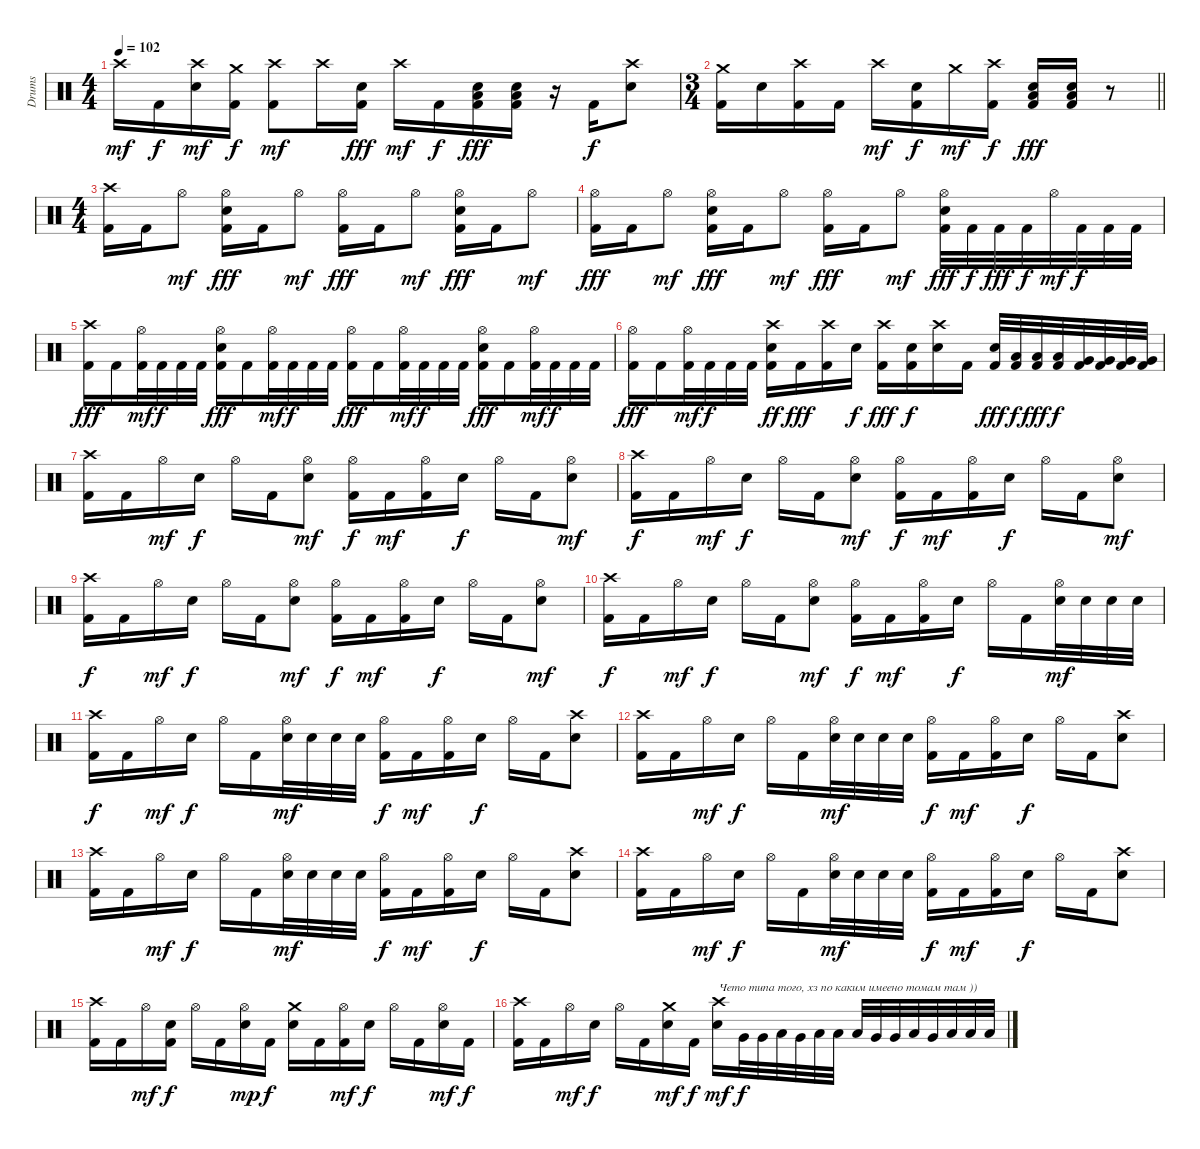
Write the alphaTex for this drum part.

\track ("Drums" "Drums") {instrument percussion}
\staff {score}
\articulation defaults
\ts (4 4)
\tempo 102
\clef neutral
\ks c "Crash high (hit)".16{dy mf} "Kick (hit) 2".16{dy f}
("Crash high (hit)" "Electric Snare (hit)").16{dy mf} ("Crash medium (hit)" "Kick (hit) 2").16{dy f} ("Crash high (hit)" "Kick (hit) 2").8{dy mf} "Crash high (hit)".16 ("Electric Snare (hit)" "Kick (hit) 2").16{dy fff} "Crash high (hit)".16{dy mf} "Kick (hit) 2".16{dy f} ("Low Floor Tom (hit)" "Electric Snare (hit)" "Kick (hit) 2").16{dy fff} ("Low Floor Tom (hit)" "Electric Snare (hit)" "Kick (hit) 2").16 r.16 "Kick (hit) 2".16{dy f} ("Crash high (hit)" "Electric Snare (hit)").8 |
\ts (3 4)
\barLineRight lightlight
("Crash medium (hit)" "Kick (hit) 2").16 "Electric Snare (hit)".16 ("Crash high (hit)" "Kick (hit) 2").16 "Kick (hit) 2".16 "Crash high (hit)".16{dy mf} ("Electric Snare (hit)" "Kick (hit) 2").16{dy f} "Crash medium (hit)".16{dy mf} ("Crash high (hit)" "Kick (hit) 2").16{dy f} ("Low Floor Tom (hit)" "Electric Snare (hit)" "Kick (hit) 2").16{dy fff} ("Low Floor Tom (hit)" "Electric Snare (hit)" "Kick (hit) 2").16 r.8 |
\ts (4 4)
("Crash high (hit)" "Kick (hit) 2").16 "Kick (hit) 2".16 "Hi-Hat (open)".8{dy mf} ("Hi-Hat (open)" "Electric Snare (hit)" "Kick (hit) 2").16{dy fff} "Kick (hit) 2".16 "Hi-Hat (open)".8{dy mf} ("Hi-Hat (open)" "Kick (hit) 2").16{dy fff} "Kick (hit) 2".16 "Hi-Hat (open)".8{dy mf} ("Hi-Hat (open)" "Electric Snare (hit)" "Kick (hit) 2").16{dy fff} "Kick (hit) 2".16 "Hi-Hat (open)".8{dy mf} |
("Hi-Hat (open)" "Kick (hit) 2").16{dy fff} "Kick (hit) 2".16 "Hi-Hat (open)".8{dy mf} ("Hi-Hat (open)" "Electric Snare (hit)" "Kick (hit) 2").16{dy fff} "Kick (hit) 2".16 "Hi-Hat (open)".8{dy mf} ("Hi-Hat (open)" "Kick (hit) 2").16{dy fff} "Kick (hit) 2".16 "Hi-Hat (open)".8{dy mf} ("Hi-Hat (open)" "Electric Snare (hit)" "Kick (hit) 2").32{dy fff} "Kick (hit) 2".32{dy f} "Kick (hit) 2".32{dy fff} "Kick (hit) 2".32{dy f} "Hi-Hat (open)".32{dy mf} "Kick (hit) 2".32{dy f} "Kick (hit) 2".32 "Kick (hit) 2".32 |
("Crash high (hit)" "Kick (hit) 2").16{dy fff} "Kick (hit) 2".16 ("Hi-Hat (open)" "Kick (hit) 2").32{dy mf} "Kick (hit) 2".32{dy f} "Kick (hit) 2".32 "Kick (hit) 2".32 ("Hi-Hat (open)" "Electric Snare (hit)" "Kick (hit) 2").16{dy fff} "Kick (hit) 2".16 ("Hi-Hat (open)" "Kick (hit) 2").32{dy mf} "Kick (hit) 2".32{dy f} "Kick (hit) 2".32 "Kick (hit) 2".32 ("Hi-Hat (open)" "Kick (hit) 2").16{dy fff} "Kick (hit) 2".16 ("Hi-Hat (open)" "Kick (hit) 2").32{dy mf} "Kick (hit) 2".32{dy f} "Kick (hit) 2".32 "Kick (hit) 2".32 ("Hi-Hat (open)" "Electric Snare (hit)" "Kick (hit) 2").16{dy fff} "Kick (hit) 2".16 ("Hi-Hat (open)" "Kick (hit) 2").32{dy mf} "Kick (hit) 2".32{dy f} "Kick (hit) 2".32 "Kick (hit) 2".32 |
("Hi-Hat (open)" "Kick (hit) 2").16{dy fff} "Kick (hit) 2".16 ("Hi-Hat (open)" "Kick (hit) 2").32{dy mf} "Kick (hit) 2".32{dy f} "Kick (hit) 2".32 "Kick (hit) 2".32 ("Crash high (hit)" "Electric Snare (hit)" "Kick (hit) 2").16{dy ff} "Kick (hit) 2".16{dy fff} ("Crash high (hit)" "Kick (hit) 2").16 "Electric Snare (hit)".16{dy f} ("Crash high (hit)" "Kick (hit) 2").16{dy fff} ("Electric Snare (hit)" "Kick (hit) 2").16{dy f} ("Crash high (hit)" "Electric Snare (hit)").16 "Kick (hit) 2".16 ("Electric Snare (hit)" "Kick (hit) 2").32{dy fff} ("Low Tom (hit)" "Kick (hit) 2").32{dy f} ("Low Tom (hit)" "Kick (hit) 2").32{dy fff} ("Low Tom (hit)" "Kick (hit) 2").32{dy f} ("Very Low Tom (hit)" "Kick (hit) 2").32 ("Very Low Tom (hit)" "Kick (hit) 2").32 ("Very Low Tom (hit)" "Kick (hit) 2").32 ("Very Low Tom (hit)" "Kick (hit) 2").32 |
("Crash high (hit)" "Kick (hit) 2").16 "Kick (hit) 2".16 "Hi-Hat (open)".16{dy mf} "Electric Snare (hit)".16{dy f} "Hi-Hat (open)".16 "Kick (hit) 2".16 ("Hi-Hat (open)" "Electric Snare (hit)").8{dy mf} ("Hi-Hat (open)" "Kick (hit) 2").16{dy f} "Kick (hit) 2".16{dy mf} ("Hi-Hat (open)" "Kick (hit) 2").16 "Electric Snare (hit)".16{dy f} "Hi-Hat (open)".16 "Kick (hit) 2".16 ("Hi-Hat (open)" "Electric Snare (hit)").8{dy mf} |
("Crash high (hit)" "Kick (hit) 2").16{dy f} "Kick (hit) 2".16 "Hi-Hat (open)".16{dy mf} "Electric Snare (hit)".16{dy f} "Hi-Hat (open)".16 "Kick (hit) 2".16 ("Hi-Hat (open)" "Electric Snare (hit)").8{dy mf} ("Hi-Hat (open)" "Kick (hit) 2").16{dy f} "Kick (hit) 2".16{dy mf} ("Hi-Hat (open)" "Kick (hit) 2").16 "Electric Snare (hit)".16{dy f} "Hi-Hat (open)".16 "Kick (hit) 2".16 ("Hi-Hat (open)" "Electric Snare (hit)").8{dy mf} |
("Crash high (hit)" "Kick (hit) 2").16{dy f} "Kick (hit) 2".16 "Hi-Hat (open)".16{dy mf} "Electric Snare (hit)".16{dy f} "Hi-Hat (open)".16 "Kick (hit) 2".16 ("Hi-Hat (open)" "Electric Snare (hit)").8{dy mf} ("Hi-Hat (open)" "Kick (hit) 2").16{dy f} "Kick (hit) 2".16{dy mf} ("Hi-Hat (open)" "Kick (hit) 2").16 "Electric Snare (hit)".16{dy f} "Hi-Hat (open)".16 "Kick (hit) 2".16 ("Hi-Hat (open)" "Electric Snare (hit)").8{dy mf} |
("Crash high (hit)" "Kick (hit) 2").16{dy f} "Kick (hit) 2".16 "Hi-Hat (open)".16{dy mf} "Electric Snare (hit)".16{dy f} "Hi-Hat (open)".16 "Kick (hit) 2".16 ("Hi-Hat (open)" "Electric Snare (hit)").8{dy mf} ("Hi-Hat (open)" "Kick (hit) 2").16{dy f} "Kick (hit) 2".16{dy mf} ("Hi-Hat (open)" "Kick (hit) 2").16 "Electric Snare (hit)".16{dy f} "Hi-Hat (open)".16 "Kick (hit) 2".16 ("Hi-Hat (open)" "Electric Snare (hit)").32{dy mf} "Electric Snare (hit)".32 "Electric Snare (hit)".32 "Electric Snare (hit)".32 |
("Crash high (hit)" "Kick (hit) 2").16{dy f} "Kick (hit) 2".16 "Hi-Hat (open)".16{dy mf} "Electric Snare (hit)".16{dy f} "Hi-Hat (open)".16 "Kick (hit) 2".16 ("Hi-Hat (open)" "Electric Snare (hit)").32{dy mf} "Electric Snare (hit)".32 "Electric Snare (hit)".32 "Electric Snare (hit)".32 ("Hi-Hat (open)" "Kick (hit) 2").16{dy f} "Kick (hit) 2".16{dy mf} ("Hi-Hat (open)" "Kick (hit) 2").16 "Electric Snare (hit)".16{dy f} "Hi-Hat (open)".16 "Kick (hit) 2".16 ("Crash high (hit)" "Electric Snare (hit)").8 |
("Crash high (hit)" "Kick (hit) 2").16 "Kick (hit) 2".16 "Hi-Hat (open)".16{dy mf} "Electric Snare (hit)".16{dy f} "Hi-Hat (open)".16 "Kick (hit) 2".16 ("Hi-Hat (open)" "Electric Snare (hit)").32{dy mf} "Electric Snare (hit)".32 "Electric Snare (hit)".32 "Electric Snare (hit)".32 ("Hi-Hat (open)" "Kick (hit) 2").16{dy f} "Kick (hit) 2".16{dy mf} ("Hi-Hat (open)" "Kick (hit) 2").16 "Electric Snare (hit)".16{dy f} "Hi-Hat (open)".16 "Kick (hit) 2".16 ("Crash high (hit)" "Electric Snare (hit)").8 |
("Crash high (hit)" "Kick (hit) 2").16 "Kick (hit) 2".16 "Hi-Hat (open)".16{dy mf} "Electric Snare (hit)".16{dy f} "Hi-Hat (open)".16 "Kick (hit) 2".16 ("Hi-Hat (open)" "Electric Snare (hit)").32{dy mf} "Electric Snare (hit)".32 "Electric Snare (hit)".32 "Electric Snare (hit)".32 ("Hi-Hat (open)" "Kick (hit) 2").16{dy f} "Kick (hit) 2".16{dy mf} ("Hi-Hat (open)" "Kick (hit) 2").16 "Electric Snare (hit)".16{dy f} "Hi-Hat (open)".16 "Kick (hit) 2".16 ("Crash high (hit)" "Electric Snare (hit)").8 |
("Crash high (hit)" "Kick (hit) 2").16 "Kick (hit) 2".16 "Hi-Hat (open)".16{dy mf} "Electric Snare (hit)".16{dy f} "Hi-Hat (open)".16 "Kick (hit) 2".16 ("Hi-Hat (open)" "Electric Snare (hit)").32{dy mf} "Electric Snare (hit)".32 "Electric Snare (hit)".32 "Electric Snare (hit)".32 ("Hi-Hat (open)" "Kick (hit) 2").16{dy f} "Kick (hit) 2".16{dy mf} ("Hi-Hat (open)" "Kick (hit) 2").16 "Electric Snare (hit)".16{dy f} "Hi-Hat (open)".16 "Kick (hit) 2".16 ("Crash high (hit)" "Electric Snare (hit)").8 |
("Crash high (hit)" "Kick (hit) 2").16 "Kick (hit) 2".16 "Hi-Hat (open)".16{dy mf} ("Electric Snare (hit)" "Kick (hit) 2").16{dy f} "Hi-Hat (open)".16 "Kick (hit) 2".16 ("Hi-Hat (open)" "Electric Snare (hit)").16{dy mp} "Kick (hit) 2".16{dy f} ("Crash medium (hit)" "Electric Snare (hit)").16 "Kick (hit) 2".16 ("Hi-Hat (open)" "Kick (hit) 2").16{dy mf} "Electric Snare (hit)".16{dy f} "Hi-Hat (open)".16 "Kick (hit) 2".16 ("Hi-Hat (open)" "Electric Snare (hit)").16{dy mf} "Kick (hit) 2".16{dy f} |
("Crash high (hit)" "Kick (hit) 2").16 "Kick (hit) 2".16 "Hi-Hat (open)".16{dy mf} "Electric Snare (hit)".16{dy f} "Hi-Hat (open)".16 "Kick (hit) 2".16 ("Crash medium (hit)" "Electric Snare (hit)").16{dy mf} "Kick (hit) 2".16{dy f} ("Crash high (hit)" "Electric Snare (hit)").16{txt "Чето типа того, хз по каким имеено томам там ))" dy mf} "Very Low Tom (hit)".32{dy f} "Very Low Tom (hit)".32 "Low Tom (hit)".32 "Very Low Tom (hit)".32 "Low Floor Tom (hit)".32 "Low Floor Tom (hit)".32 "Low Tom (hit)".32 "Very Low Tom (hit)".32 "Very Low Tom (hit)".32 "Low Floor Tom (hit)".32 "Very Low Tom (hit)".32 "Low Floor Tom (hit)".32 "Low Floor Tom (hit)".32 "Low Floor Tom (hit)".32
